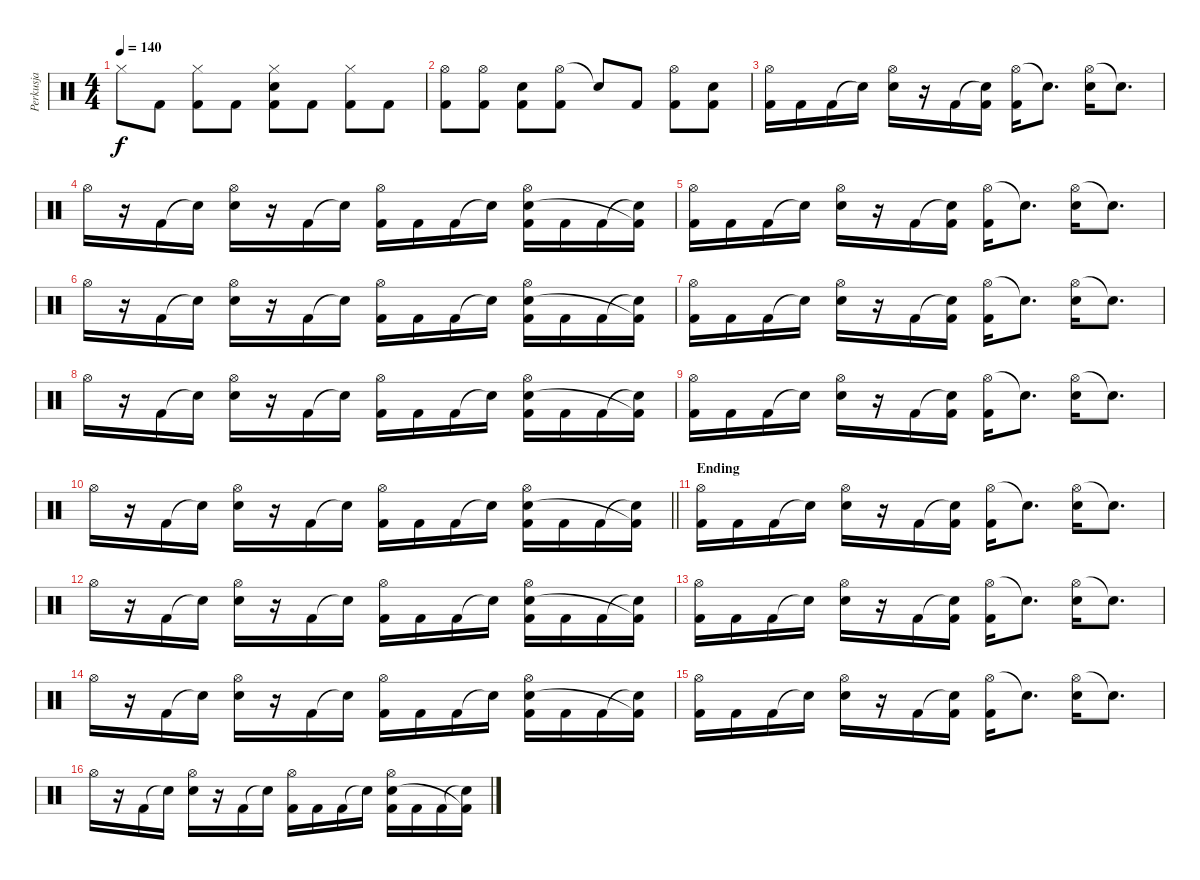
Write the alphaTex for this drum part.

\track ("Perkusja" "Perkusja") {instrument percussion}
\staff {score}
\articulation defaults
\ts (4 4)
\tempo 140
\clef neutral
\ks c "Hi-Hat (closed)".8{dy f} "Kick (hit) 2".8
("Hi-Hat (closed)" "Kick (hit) 2").8 "Kick (hit) 2".8 ("Hi-Hat (closed)" "Snare (hit) 2" "Kick (hit) 2").8 "Kick (hit) 2".8 ("Hi-Hat (closed)" "Kick (hit) 2").8 "Kick (hit) 2".8 |
("Hi-Hat (open)" "Kick (hit) 2").8 ("Hi-Hat (open)" "Kick (hit) 2").8 ("Snare (hit) 2" "Kick (hit) 2").8 ("Hi-Hat (open)" "Kick (hit) 2").8 "Snare (hit)"{t}.8 "Kick (hit) 2".8 ("Hi-Hat (open)" "Kick (hit) 2").8 ("Snare (hit) 2" "Kick (hit) 2").8 |
("Hi-Hat (open)" "Kick (hit) 2").16 "Kick (hit) 2".16 "Kick (hit) 2".16 "Snare (hit)"{t}.16 ("Hi-Hat (open)" "Snare (hit) 2").16 r.16 "Kick (hit) 2".16 ("Snare (hit)"{t} "Kick (hit) 2").16 ("Hi-Hat (open)" "Kick (hit) 2").16 "Snare (hit)"{t}.8{d} ("Hi-Hat (open)" "Snare (hit) 2").16 "Snare (hit)"{t}.8{d} |
"Hi-Hat (open)".16 r.16 "Kick (hit) 2".16 "Snare (hit)"{t}.16 ("Hi-Hat (open)" "Snare (hit) 2").16 r.16 "Kick (hit) 2".16 "Snare (hit)"{t}.16 ("Hi-Hat (open)" "Kick (hit) 2").16 "Kick (hit) 2".16 "Kick (hit) 2".16 "Snare (hit)"{t}.16 ("Hi-Hat (open)" "Snare (hit) 2" "Kick (hit) 2").16 "Kick (hit) 2".16 "Kick (hit) 2".16 ("Snare (hit)"{t} "Kick (hit) 2"{t}).16 |
("Hi-Hat (open)" "Kick (hit) 2").16 "Kick (hit) 2".16 "Kick (hit) 2".16 "Snare (hit)"{t}.16 ("Hi-Hat (open)" "Snare (hit) 2").16 r.16 "Kick (hit) 2".16 ("Snare (hit)"{t} "Kick (hit) 2").16 ("Hi-Hat (open)" "Kick (hit) 2").16 "Snare (hit)"{t}.8{d} ("Hi-Hat (open)" "Snare (hit) 2").16 "Snare (hit)"{t}.8{d} |
"Hi-Hat (open)".16 r.16 "Kick (hit) 2".16 "Snare (hit)"{t}.16 ("Hi-Hat (open)" "Snare (hit) 2").16 r.16 "Kick (hit) 2".16 "Snare (hit)"{t}.16 ("Hi-Hat (open)" "Kick (hit) 2").16 "Kick (hit) 2".16 "Kick (hit) 2".16 "Snare (hit)"{t}.16 ("Hi-Hat (open)" "Snare (hit) 2" "Kick (hit) 2").16 "Kick (hit) 2".16 "Kick (hit) 2".16 ("Snare (hit)"{t} "Kick (hit) 2"{t}).16 |
("Hi-Hat (open)" "Kick (hit) 2").16 "Kick (hit) 2".16 "Kick (hit) 2".16 "Snare (hit)"{t}.16 ("Hi-Hat (open)" "Snare (hit) 2").16 r.16 "Kick (hit) 2".16 ("Snare (hit)"{t} "Kick (hit) 2").16 ("Hi-Hat (open)" "Kick (hit) 2").16 "Snare (hit)"{t}.8{d} ("Hi-Hat (open)" "Snare (hit) 2").16 "Snare (hit)"{t}.8{d} |
"Hi-Hat (open)".16 r.16 "Kick (hit) 2".16 "Snare (hit)"{t}.16 ("Hi-Hat (open)" "Snare (hit) 2").16 r.16 "Kick (hit) 2".16 "Snare (hit)"{t}.16 ("Hi-Hat (open)" "Kick (hit) 2").16 "Kick (hit) 2".16 "Kick (hit) 2".16 "Snare (hit)"{t}.16 ("Hi-Hat (open)" "Snare (hit) 2" "Kick (hit) 2").16 "Kick (hit) 2".16 "Kick (hit) 2".16 ("Snare (hit)"{t} "Kick (hit) 2"{t}).16 |
("Hi-Hat (open)" "Kick (hit) 2").16 "Kick (hit) 2".16 "Kick (hit) 2".16 "Snare (hit)"{t}.16 ("Hi-Hat (open)" "Snare (hit) 2").16 r.16 "Kick (hit) 2".16 ("Snare (hit)"{t} "Kick (hit) 2").16 ("Hi-Hat (open)" "Kick (hit) 2").16 "Snare (hit)"{t}.8{d} ("Hi-Hat (open)" "Snare (hit) 2").16 "Snare (hit)"{t}.8{d} |
\barLineRight lightlight "Hi-Hat (open)".16
r.16 "Kick (hit) 2".16 "Snare (hit)"{t}.16 ("Hi-Hat (open)" "Snare (hit) 2").16 r.16 "Kick (hit) 2".16 "Snare (hit)"{t}.16 ("Hi-Hat (open)" "Kick (hit) 2").16 "Kick (hit) 2".16 "Kick (hit) 2".16 "Snare (hit)"{t}.16 ("Hi-Hat (open)" "Snare (hit) 2" "Kick (hit) 2").16 "Kick (hit) 2".16 "Kick (hit) 2".16 ("Snare (hit)"{t} "Kick (hit) 2"{t}).16 |
\section ("" "Ending")
("Hi-Hat (open)" "Kick (hit) 2").16 "Kick (hit) 2".16 "Kick (hit) 2".16 "Snare (hit)"{t}.16 ("Hi-Hat (open)" "Snare (hit) 2").16 r.16 "Kick (hit) 2".16 ("Snare (hit)"{t} "Kick (hit) 2").16 ("Hi-Hat (open)" "Kick (hit) 2").16 "Snare (hit)"{t}.8{d} ("Hi-Hat (open)" "Snare (hit) 2").16 "Snare (hit)"{t}.8{d} |
"Hi-Hat (open)".16 r.16 "Kick (hit) 2".16 "Snare (hit)"{t}.16 ("Hi-Hat (open)" "Snare (hit) 2").16 r.16 "Kick (hit) 2".16 "Snare (hit)"{t}.16 ("Hi-Hat (open)" "Kick (hit) 2").16 "Kick (hit) 2".16 "Kick (hit) 2".16 "Snare (hit)"{t}.16 ("Hi-Hat (open)" "Snare (hit) 2" "Kick (hit) 2").16 "Kick (hit) 2".16 "Kick (hit) 2".16 ("Snare (hit)"{t} "Kick (hit) 2"{t}).16 |
("Hi-Hat (open)" "Kick (hit) 2").16 "Kick (hit) 2".16 "Kick (hit) 2".16 "Snare (hit)"{t}.16 ("Hi-Hat (open)" "Snare (hit) 2").16 r.16 "Kick (hit) 2".16 ("Snare (hit)"{t} "Kick (hit) 2").16 ("Hi-Hat (open)" "Kick (hit) 2").16 "Snare (hit)"{t}.8{d} ("Hi-Hat (open)" "Snare (hit) 2").16 "Snare (hit)"{t}.8{d} |
"Hi-Hat (open)".16 r.16 "Kick (hit) 2".16 "Snare (hit)"{t}.16 ("Hi-Hat (open)" "Snare (hit) 2").16 r.16 "Kick (hit) 2".16 "Snare (hit)"{t}.16 ("Hi-Hat (open)" "Kick (hit) 2").16 "Kick (hit) 2".16 "Kick (hit) 2".16 "Snare (hit)"{t}.16 ("Hi-Hat (open)" "Snare (hit) 2" "Kick (hit) 2").16 "Kick (hit) 2".16 "Kick (hit) 2".16 ("Snare (hit)"{t} "Kick (hit) 2"{t}).16 |
("Hi-Hat (open)" "Kick (hit) 2").16 "Kick (hit) 2".16 "Kick (hit) 2".16 "Snare (hit)"{t}.16 ("Hi-Hat (open)" "Snare (hit) 2").16 r.16 "Kick (hit) 2".16 ("Snare (hit)"{t} "Kick (hit) 2").16 ("Hi-Hat (open)" "Kick (hit) 2").16 "Snare (hit)"{t}.8{d} ("Hi-Hat (open)" "Snare (hit) 2").16 "Snare (hit)"{t}.8{d} |
"Hi-Hat (open)".16 r.16 "Kick (hit) 2".16 "Snare (hit)"{t}.16 ("Hi-Hat (open)" "Snare (hit) 2").16 r.16 "Kick (hit) 2".16 "Snare (hit)"{t}.16 ("Hi-Hat (open)" "Kick (hit) 2").16 "Kick (hit) 2".16 "Kick (hit) 2".16 "Snare (hit)"{t}.16 ("Hi-Hat (open)" "Snare (hit) 2" "Kick (hit) 2").16 "Kick (hit) 2".16 "Kick (hit) 2".16 ("Snare (hit)"{t} "Kick (hit) 2"{t}).16
